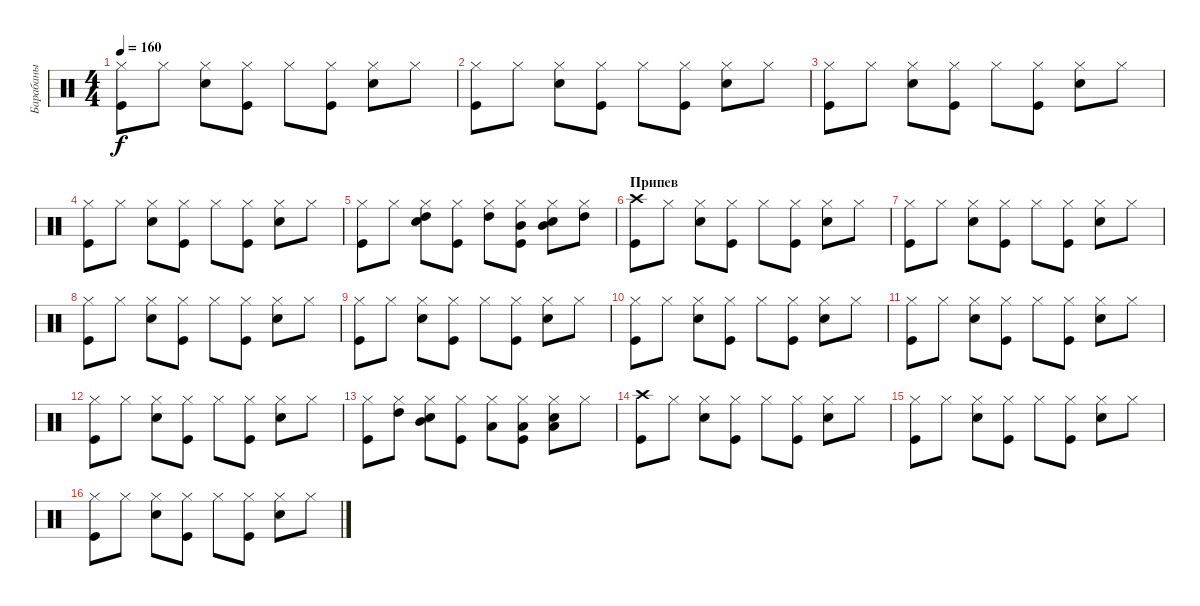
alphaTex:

\track ("Барабаны" "Барабаны") {instrument percussion}
\staff {score}
\articulation defaults
\ts (4 4)
\tempo 160
\clef neutral
\ks c
("Kick (hit)" "Hi-Hat (closed)").8{dy f} "Hi-Hat (closed)".8 ("Snare (hit) 2" "Hi-Hat (closed)").8 ("Kick (hit)" "Hi-Hat (closed)").8 "Hi-Hat (closed)".8 ("Kick (hit)" "Hi-Hat (closed)").8 ("Snare (hit) 2" "Hi-Hat (closed)").8 "Hi-Hat (closed)".8 |
("Kick (hit)" "Hi-Hat (closed)").8 "Hi-Hat (closed)".8 ("Snare (hit) 2" "Hi-Hat (closed)").8 ("Kick (hit)" "Hi-Hat (closed)").8 "Hi-Hat (closed)".8 ("Kick (hit)" "Hi-Hat (closed)").8 ("Snare (hit) 2" "Hi-Hat (closed)").8 "Hi-Hat (closed)".8 |
("Kick (hit)" "Hi-Hat (closed)").8 "Hi-Hat (closed)".8 ("Snare (hit) 2" "Hi-Hat (closed)").8 ("Kick (hit)" "Hi-Hat (closed)").8 "Hi-Hat (closed)".8 ("Kick (hit)" "Hi-Hat (closed)").8 ("Snare (hit) 2" "Hi-Hat (closed)").8 "Hi-Hat (closed)".8 |
("Kick (hit)" "Hi-Hat (closed)").8 "Hi-Hat (closed)".8 ("Snare (hit) 2" "Hi-Hat (closed)").8 ("Kick (hit)" "Hi-Hat (closed)").8 "Hi-Hat (closed)".8 ("Kick (hit)" "Hi-Hat (closed)").8 ("Snare (hit) 2" "Hi-Hat (closed)").8 "Hi-Hat (closed)".8 |
("Kick (hit)" "Hi-Hat (closed)").8 "Hi-Hat (closed)".8 ("Snare (hit) 2" "High Tom (hit)" "Hi-Hat (closed)").8 ("Kick (hit)" "Hi-Hat (closed)").8 ("High Tom (hit)" "Hi-Hat (closed)").8 ("Kick (hit)" "Mid Tom (hit)" "Hi-Hat (closed)").8 ("Snare (hit) 2" "Mid Tom (hit)" "Hi-Hat (closed)").8 ("High Tom (hit)" "Hi-Hat (closed)").8 |
\section ("" "Припев")
("Kick (hit)" "Crash high (hit)").8 "Hi-Hat (closed)".8 ("Snare (hit) 2" "Hi-Hat (closed)").8 ("Kick (hit)" "Hi-Hat (closed)").8 "Hi-Hat (closed)".8 ("Kick (hit)" "Hi-Hat (closed)").8 ("Snare (hit) 2" "Hi-Hat (closed)").8 "Hi-Hat (closed)".8 |
("Kick (hit)" "Hi-Hat (closed)").8 "Hi-Hat (closed)".8 ("Snare (hit) 2" "Hi-Hat (closed)").8 ("Kick (hit)" "Hi-Hat (closed)").8 "Hi-Hat (closed)".8 ("Kick (hit)" "Hi-Hat (closed)").8 ("Snare (hit) 2" "Hi-Hat (closed)").8 "Hi-Hat (closed)".8 |
("Kick (hit)" "Hi-Hat (closed)").8 "Hi-Hat (closed)".8 ("Snare (hit) 2" "Hi-Hat (closed)").8 ("Kick (hit)" "Hi-Hat (closed)").8 "Hi-Hat (closed)".8 ("Kick (hit)" "Hi-Hat (closed)").8 ("Snare (hit) 2" "Hi-Hat (closed)").8 "Hi-Hat (closed)".8 |
("Kick (hit)" "Hi-Hat (closed)").8 "Hi-Hat (closed)".8 ("Snare (hit) 2" "Hi-Hat (closed)").8 ("Kick (hit)" "Hi-Hat (closed)").8 "Hi-Hat (closed)".8 ("Kick (hit)" "Hi-Hat (closed)").8 ("Snare (hit) 2" "Hi-Hat (closed)").8 "Hi-Hat (closed)".8 |
("Kick (hit)" "Hi-Hat (closed)").8 "Hi-Hat (closed)".8 ("Snare (hit) 2" "Hi-Hat (closed)").8 ("Kick (hit)" "Hi-Hat (closed)").8 "Hi-Hat (closed)".8 ("Kick (hit)" "Hi-Hat (closed)").8 ("Snare (hit) 2" "Hi-Hat (closed)").8 "Hi-Hat (closed)".8 |
("Kick (hit)" "Hi-Hat (closed)").8 "Hi-Hat (closed)".8 ("Snare (hit) 2" "Hi-Hat (closed)").8 ("Kick (hit)" "Hi-Hat (closed)").8 "Hi-Hat (closed)".8 ("Kick (hit)" "Hi-Hat (closed)").8 ("Snare (hit) 2" "Hi-Hat (closed)").8 "Hi-Hat (closed)".8 |
("Kick (hit)" "Hi-Hat (closed)").8 "Hi-Hat (closed)".8 ("Snare (hit) 2" "Hi-Hat (closed)").8 ("Kick (hit)" "Hi-Hat (closed)").8 "Hi-Hat (closed)".8 ("Kick (hit)" "Hi-Hat (closed)").8 ("Snare (hit) 2" "Hi-Hat (closed)").8 "Hi-Hat (closed)".8 |
("Kick (hit)" "Hi-Hat (closed)").8 ("High Tom (hit)" "Hi-Hat (closed)").8 ("Snare (hit) 2" "Mid Tom (hit)" "Hi-Hat (closed)").8 ("Kick (hit)" "Hi-Hat (closed)").8 ("Low Tom (hit)" "Hi-Hat (closed)").8 ("Kick (hit)" "Low Tom (hit)" "Hi-Hat (closed)").8 ("Snare (hit) 2" "Low Tom (hit)" "Hi-Hat (closed)").8 "Hi-Hat (closed)".8 |
("Kick (hit)" "Crash high (hit)").8 "Hi-Hat (closed)".8 ("Snare (hit) 2" "Hi-Hat (closed)").8 ("Kick (hit)" "Hi-Hat (closed)").8 "Hi-Hat (closed)".8 ("Kick (hit)" "Hi-Hat (closed)").8 ("Snare (hit) 2" "Hi-Hat (closed)").8 "Hi-Hat (closed)".8 |
("Kick (hit)" "Hi-Hat (closed)").8 "Hi-Hat (closed)".8 ("Snare (hit) 2" "Hi-Hat (closed)").8 ("Kick (hit)" "Hi-Hat (closed)").8 "Hi-Hat (closed)".8 ("Kick (hit)" "Hi-Hat (closed)").8 ("Snare (hit) 2" "Hi-Hat (closed)").8 "Hi-Hat (closed)".8 |
("Kick (hit)" "Hi-Hat (closed)").8 "Hi-Hat (closed)".8 ("Snare (hit) 2" "Hi-Hat (closed)").8 ("Kick (hit)" "Hi-Hat (closed)").8 "Hi-Hat (closed)".8 ("Kick (hit)" "Hi-Hat (closed)").8 ("Snare (hit) 2" "Hi-Hat (closed)").8 "Hi-Hat (closed)".8
